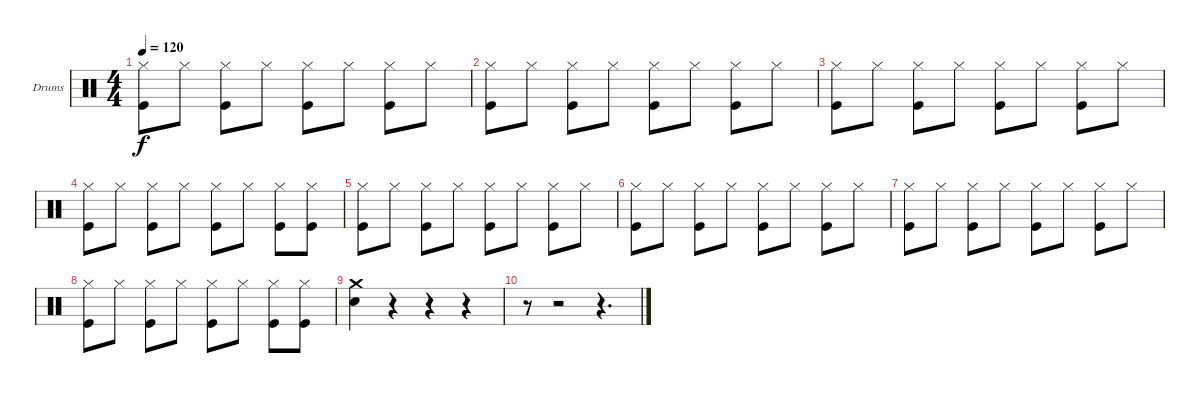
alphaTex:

\bracketExtendMode groupsimilarinstruments
\firstSystemTrackNameOrientation horizontal
\otherSystemsTrackNameOrientation horizontal
\track ("Ударные" "Drums") {instrument percussion}
\staff {score}
\articulation defaults
\ts (4 4)
\tempo 120
\clef neutral
\ks c
("Hi-Hat (closed)" "Kick (hit)").8{dy f} "Hi-Hat (closed)".8 ("Hi-Hat (closed)" "Kick (hit)").8 "Hi-Hat (closed)".8 ("Hi-Hat (closed)" "Kick (hit)").8 "Hi-Hat (closed)".8 ("Hi-Hat (closed)" "Kick (hit)").8 "Hi-Hat (closed)".8 |
("Hi-Hat (closed)" "Kick (hit)").8 "Hi-Hat (closed)".8 ("Hi-Hat (closed)" "Kick (hit)").8 "Hi-Hat (closed)".8 ("Hi-Hat (closed)" "Kick (hit)").8 "Hi-Hat (closed)".8 ("Hi-Hat (closed)" "Kick (hit)").8 "Hi-Hat (closed)".8 |
("Hi-Hat (closed)" "Kick (hit)").8 "Hi-Hat (closed)".8 ("Hi-Hat (closed)" "Kick (hit)").8 "Hi-Hat (closed)".8 ("Hi-Hat (closed)" "Kick (hit)").8 "Hi-Hat (closed)".8 ("Hi-Hat (closed)" "Kick (hit)").8 "Hi-Hat (closed)".8 |
("Hi-Hat (closed)" "Kick (hit)").8 "Hi-Hat (closed)".8 ("Hi-Hat (closed)" "Kick (hit)").8 "Hi-Hat (closed)".8 ("Hi-Hat (closed)" "Kick (hit)").8 "Hi-Hat (closed)".8 ("Hi-Hat (closed)" "Kick (hit)").8 ("Hi-Hat (closed)" "Kick (hit)").8 |
("Hi-Hat (closed)" "Kick (hit)").8 "Hi-Hat (closed)".8 ("Hi-Hat (closed)" "Kick (hit)").8 "Hi-Hat (closed)".8 ("Hi-Hat (closed)" "Kick (hit)").8 "Hi-Hat (closed)".8 ("Hi-Hat (closed)" "Kick (hit)").8 "Hi-Hat (closed)".8 |
("Hi-Hat (closed)" "Kick (hit)").8 "Hi-Hat (closed)".8 ("Hi-Hat (closed)" "Kick (hit)").8 "Hi-Hat (closed)".8 ("Hi-Hat (closed)" "Kick (hit)").8 "Hi-Hat (closed)".8 ("Hi-Hat (closed)" "Kick (hit)").8 "Hi-Hat (closed)".8 |
("Hi-Hat (closed)" "Kick (hit)").8 "Hi-Hat (closed)".8 ("Hi-Hat (closed)" "Kick (hit)").8 "Hi-Hat (closed)".8 ("Hi-Hat (closed)" "Kick (hit)").8 "Hi-Hat (closed)".8 ("Hi-Hat (closed)" "Kick (hit)").8 "Hi-Hat (closed)".8 |
("Hi-Hat (closed)" "Kick (hit)").8 "Hi-Hat (closed)".8 ("Hi-Hat (closed)" "Kick (hit)").8 "Hi-Hat (closed)".8 ("Hi-Hat (closed)" "Kick (hit)").8 "Hi-Hat (closed)".8 ("Hi-Hat (closed)" "Kick (hit)").8 ("Hi-Hat (closed)" "Kick (hit)").8 |
("Crash medium (hit)" "Snare (hit) 2").4 r.4 r.4 r.4 |
r.8 r.2 r.4{d}
